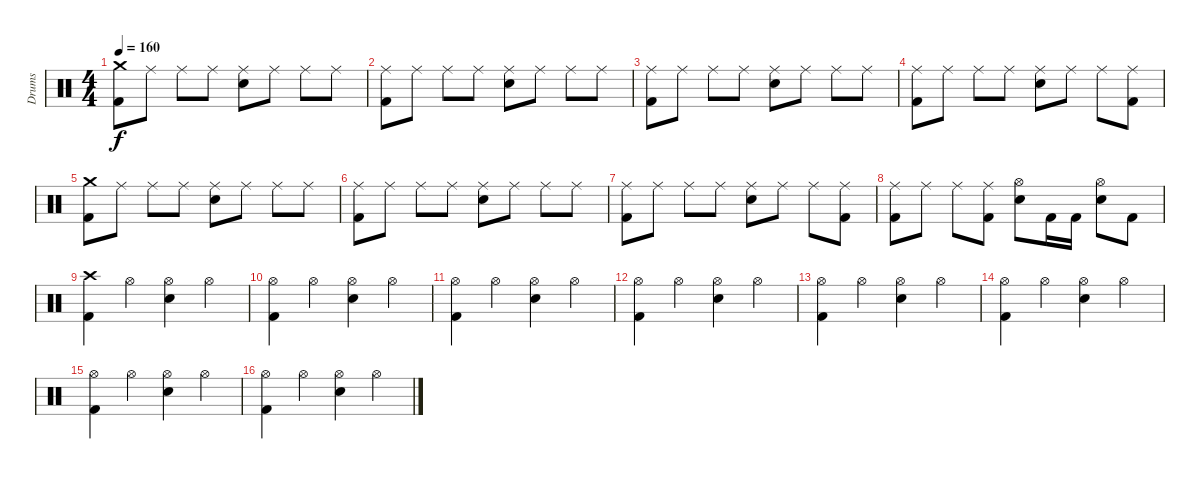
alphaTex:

\track ("Drums" "Drums") {instrument percussion}
\staff {score}
\articulation defaults
\ts (4 4)
\tempo 160
\clef neutral
\ks c
("Kick (hit) 2" "Crash medium (hit)").8{dy f} "Ride (middle)".8 "Ride (middle)".8 "Ride (middle)".8 ("Electric Snare (hit)" "Ride (middle)").8 "Ride (middle)".8 "Ride (middle)".8 "Ride (middle)".8 |
("Kick (hit) 2" "Ride (middle)").8 "Ride (middle)".8 "Ride (middle)".8 "Ride (middle)".8 ("Electric Snare (hit)" "Ride (middle)").8 "Ride (middle)".8 "Ride (middle)".8 "Ride (middle)".8 |
("Kick (hit) 2" "Ride (middle)").8 "Ride (middle)".8 "Ride (middle)".8 "Ride (middle)".8 ("Electric Snare (hit)" "Ride (middle)").8 "Ride (middle)".8 "Ride (middle)".8 "Ride (middle)".8 |
("Kick (hit) 2" "Ride (middle)").8 "Ride (middle)".8 "Ride (middle)".8 "Ride (middle)".8 ("Electric Snare (hit)" "Ride (middle)").8 "Ride (middle)".8 "Ride (middle)".8 ("Kick (hit) 2" "Ride (middle)").8 |
("Kick (hit) 2" "Crash medium (hit)").8 "Ride (middle)".8 "Ride (middle)".8 "Ride (middle)".8 ("Electric Snare (hit)" "Ride (middle)").8 "Ride (middle)".8 "Ride (middle)".8 "Ride (middle)".8 |
("Kick (hit) 2" "Ride (middle)").8 "Ride (middle)".8 "Ride (middle)".8 "Ride (middle)".8 ("Electric Snare (hit)" "Ride (middle)").8 "Ride (middle)".8 "Ride (middle)".8 "Ride (middle)".8 |
("Kick (hit) 2" "Ride (middle)").8 "Ride (middle)".8 "Ride (middle)".8 "Ride (middle)".8 ("Electric Snare (hit)" "Ride (middle)").8 "Ride (middle)".8 "Ride (middle)".8 ("Kick (hit) 2" "Ride (middle)").8 |
("Kick (hit) 2" "Ride (middle)").8 "Ride (middle)".8 "Ride (middle)".8 ("Kick (hit) 2" "Ride (middle)").8 ("Electric Snare (hit)" "Hi-Hat (open)").8 "Kick (hit) 2".16 "Kick (hit) 2".16 ("Electric Snare (hit)" "Hi-Hat (open)").8 "Kick (hit) 2".8 |
("Kick (hit) 2" "Crash high (hit)").4 "Hi-Hat (open)".4 ("Electric Snare (hit)" "Hi-Hat (open)").4 "Hi-Hat (open)".4 |
("Kick (hit) 2" "Hi-Hat (open)").4 "Hi-Hat (open)".4 ("Electric Snare (hit)" "Hi-Hat (open)").4 "Hi-Hat (open)".4 |
("Kick (hit) 2" "Hi-Hat (open)").4 "Hi-Hat (open)".4 ("Electric Snare (hit)" "Hi-Hat (open)").4 "Hi-Hat (open)".4 |
("Kick (hit) 2" "Hi-Hat (open)").4 "Hi-Hat (open)".4 ("Electric Snare (hit)" "Hi-Hat (open)").4 "Hi-Hat (open)".4 |
("Kick (hit) 2" "Hi-Hat (open)").4 "Hi-Hat (open)".4 ("Electric Snare (hit)" "Hi-Hat (open)").4 "Hi-Hat (open)".4 |
("Kick (hit) 2" "Hi-Hat (open)").4 "Hi-Hat (open)".4 ("Electric Snare (hit)" "Hi-Hat (open)").4 "Hi-Hat (open)".4 |
("Kick (hit) 2" "Hi-Hat (open)").4 "Hi-Hat (open)".4 ("Electric Snare (hit)" "Hi-Hat (open)").4 "Hi-Hat (open)".4 |
("Kick (hit) 2" "Hi-Hat (open)").4 "Hi-Hat (open)".4 ("Electric Snare (hit)" "Hi-Hat (open)").4 "Hi-Hat (open)".4
